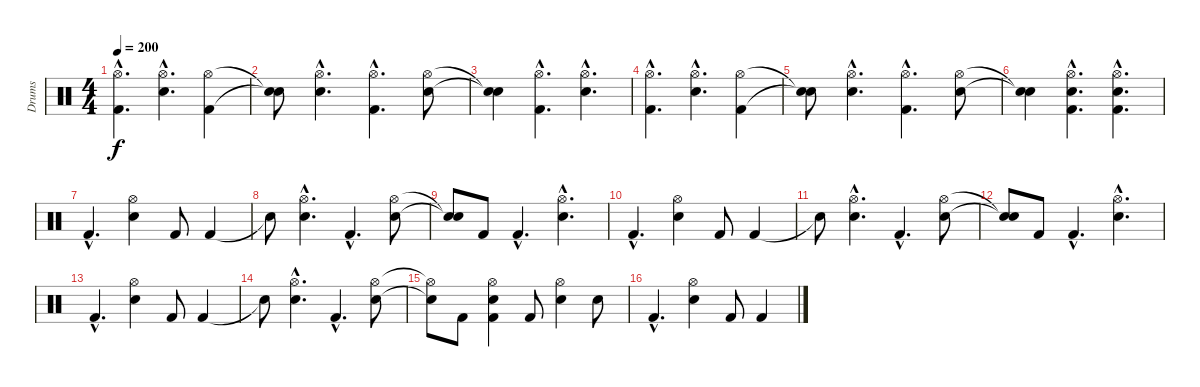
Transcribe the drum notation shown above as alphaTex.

\track ("Drums" "Drums") {instrument percussion}
\staff {score}
\articulation defaults
\ts (4 4)
\tempo 200
\clef neutral
\ks c
("Hi-Hat (open)"{hac} "Kick (hit) 2"{hac}).4{d dy f} ("Hi-Hat (open)"{hac} "Snare (hit) 2"{hac}).4{d} ("Hi-Hat (open)" "Kick (hit) 2").4 |
("Snare (hit)"{t} "Snare (hit)"{t}).8 ("Hi-Hat (open)"{hac} "Snare (hit) 2"{hac}).4{d} ("Hi-Hat (open)"{hac} "Kick (hit) 2"{hac}).4{d} ("Hi-Hat (open)" "Snare (hit) 2").8 |
("Snare (hit)"{t} "Snare (hit)"{t}).4 ("Hi-Hat (open)"{hac} "Kick (hit) 2"{hac}).4{d} ("Hi-Hat (open)"{hac} "Snare (hit) 2"{hac}).4{d} |
("Hi-Hat (open)"{hac} "Kick (hit) 2"{hac}).4{d} ("Hi-Hat (open)"{hac} "Snare (hit) 2"{hac}).4{d} ("Hi-Hat (open)" "Kick (hit) 2").4 |
("Snare (hit)"{t} "Snare (hit)"{t}).8 ("Hi-Hat (open)"{hac} "Snare (hit) 2"{hac}).4{d} ("Hi-Hat (open)"{hac} "Kick (hit) 2"{hac}).4{d} ("Hi-Hat (open)" "Snare (hit) 2").8 |
("Snare (hit)"{t} "Snare (hit)"{t}).4 ("Hi-Hat (open)"{hac} "Snare (hit) 2"{hac} "Kick (hit) 2"{hac}).4{d} ("Hi-Hat (open)"{hac} "Snare (hit) 2"{hac} "Kick (hit) 2"{hac}).4{d} |
"Kick (hit) 2"{hac}.4{d} ("Hi-Hat (open)" "Snare (hit) 2").4 "Kick (hit) 2".8 "Kick (hit) 2".4 |
"Snare (hit)"{t}.8 ("Hi-Hat (open)"{hac} "Snare (hit) 2"{hac}).4{d} "Kick (hit) 2"{hac}.4{d} ("Hi-Hat (open)" "Snare (hit) 2").8 |
("Snare (hit)"{t} "Snare (hit)"{t}).8 "Kick (hit) 2".8 "Kick (hit) 2"{hac}.4{d} ("Hi-Hat (open)"{hac} "Snare (hit) 2"{hac}).4{d} |
"Kick (hit) 2"{hac}.4{d} ("Hi-Hat (open)" "Snare (hit) 2").4 "Kick (hit) 2".8 "Kick (hit) 2".4 |
"Snare (hit)"{t}.8 ("Hi-Hat (open)"{hac} "Snare (hit) 2"{hac}).4{d} "Kick (hit) 2"{hac}.4{d} ("Hi-Hat (open)" "Snare (hit) 2").8 |
("Snare (hit)"{t} "Snare (hit)"{t}).8 "Kick (hit) 2".8 "Kick (hit) 2"{hac}.4{d} ("Hi-Hat (open)"{hac} "Snare (hit) 2"{hac}).4{d} |
"Kick (hit) 2"{hac}.4{d} ("Hi-Hat (open)" "Snare (hit) 2").4 "Kick (hit) 2".8 "Kick (hit) 2".4 |
"Snare (hit)"{t}.8 ("Hi-Hat (open)"{hac} "Snare (hit) 2"{hac}).4{d} "Kick (hit) 2"{hac}.4{d} ("Hi-Hat (open)" "Snare (hit) 2").8 |
("Hi-Hat (open)"{t} "Snare (hit) 2"{t}).8 "Kick (hit) 2".8 ("Hi-Hat (open)" "Snare (hit) 2" "Kick (hit) 2").4 "Kick (hit) 2".8 ("Hi-Hat (open)" "Snare (hit) 2").4 "Snare (hit) 2".8 |
"Kick (hit) 2"{hac}.4{d} ("Hi-Hat (open)" "Snare (hit) 2").4 "Kick (hit) 2".8 "Kick (hit) 2".4
